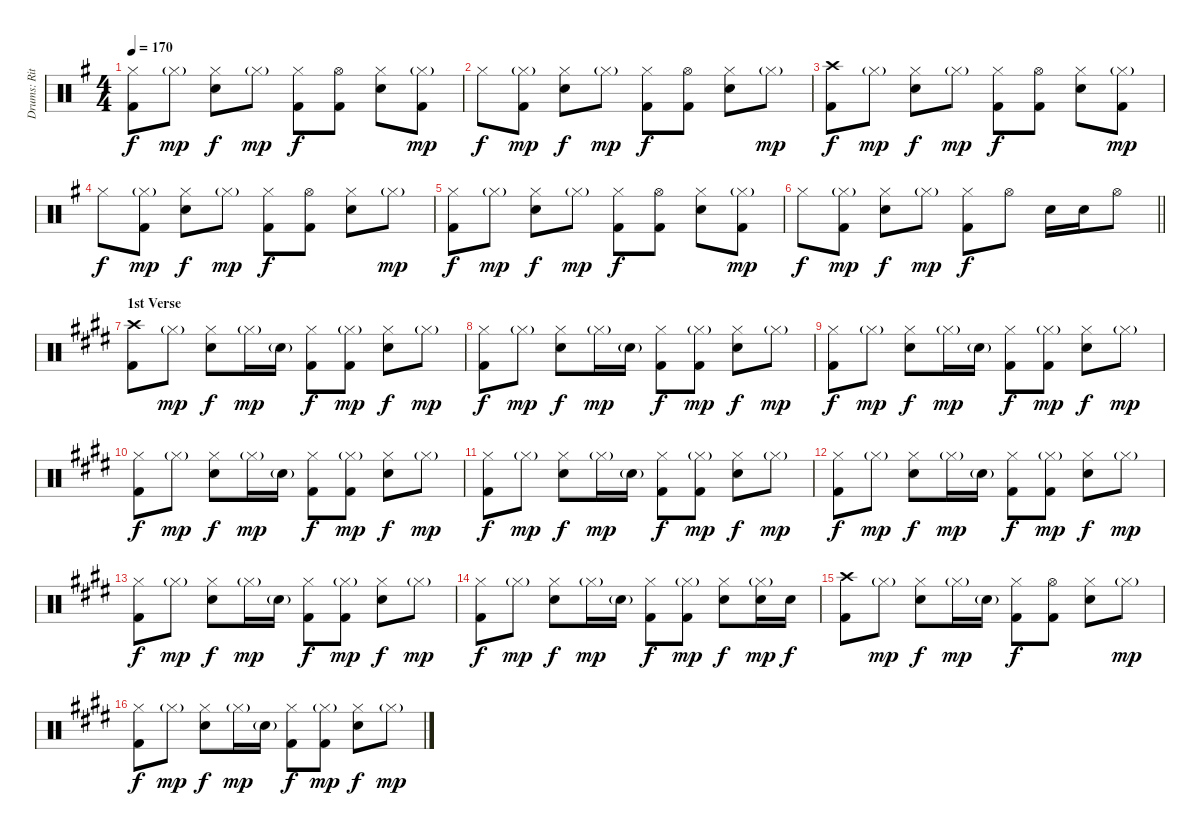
\track ("Drums: Ritsu Tainaka" "Drums: Rit") {instrument percussion}
\staff {score}
\articulation defaults
\ts (4 4)
\tempo 170
\clef neutral
\ks eminor
("Hi-Hat (closed)" "Kick (hit) 2").8{dy f} "Hi-Hat (closed)"{g}.8{dy mp} ("Hi-Hat (closed)" "Electric Snare (hit)").8{dy f} "Hi-Hat (closed)"{g}.8{dy mp} ("Hi-Hat (closed)" "Kick (hit) 2").8{dy f} ("Hi-Hat (open)" "Kick (hit) 2").8 ("Hi-Hat (closed)" "Electric Snare (hit)").8 ("Hi-Hat (closed)"{g} "Kick (hit) 2").8{dy mp} |
"Hi-Hat (closed)".8{dy f} ("Hi-Hat (closed)"{g} "Kick (hit) 2").8{dy mp} ("Hi-Hat (closed)" "Electric Snare (hit)").8{dy f} "Hi-Hat (closed)"{g}.8{dy mp} ("Hi-Hat (closed)" "Kick (hit) 2").8{dy f} ("Hi-Hat (open)" "Kick (hit) 2").8 ("Hi-Hat (closed)" "Electric Snare (hit)").8 "Hi-Hat (closed)"{g}.8{dy mp} |
("Crash high (hit)" "Kick (hit) 2").8{dy f} "Hi-Hat (closed)"{g}.8{dy mp} ("Hi-Hat (closed)" "Electric Snare (hit)").8{dy f} "Hi-Hat (closed)"{g}.8{dy mp} ("Hi-Hat (closed)" "Kick (hit) 2").8{dy f} ("Hi-Hat (open)" "Kick (hit) 2").8 ("Hi-Hat (closed)" "Electric Snare (hit)").8 ("Hi-Hat (closed)"{g} "Kick (hit) 2").8{dy mp} |
"Hi-Hat (closed)".8{dy f} ("Hi-Hat (closed)"{g} "Kick (hit) 2").8{dy mp} ("Hi-Hat (closed)" "Electric Snare (hit)").8{dy f} "Hi-Hat (closed)"{g}.8{dy mp} ("Hi-Hat (closed)" "Kick (hit) 2").8{dy f} ("Hi-Hat (open)" "Kick (hit) 2").8 ("Hi-Hat (closed)" "Electric Snare (hit)").8 "Hi-Hat (closed)"{g}.8{dy mp} |
("Hi-Hat (closed)" "Kick (hit) 2").8{dy f} "Hi-Hat (closed)"{g}.8{dy mp} ("Hi-Hat (closed)" "Electric Snare (hit)").8{dy f} "Hi-Hat (closed)"{g}.8{dy mp} ("Hi-Hat (closed)" "Kick (hit) 2").8{dy f} ("Hi-Hat (open)" "Kick (hit) 2").8 ("Hi-Hat (closed)" "Electric Snare (hit)").8 ("Hi-Hat (closed)"{g} "Kick (hit) 2").8{dy mp} |
\barLineRight lightlight "Hi-Hat (closed)".8{dy f}
("Hi-Hat (closed)"{g} "Kick (hit) 2").8{dy mp} ("Hi-Hat (closed)" "Electric Snare (hit)").8{dy f} "Hi-Hat (closed)"{g}.8{dy mp} ("Hi-Hat (closed)" "Kick (hit) 2").8{dy f} "Hi-Hat (open)".8 "Electric Snare (hit)".16 "Electric Snare (hit)".16 "Hi-Hat (open)".8 |
\section ("" "1st Verse")
\ks e
("Crash high (hit)" "Kick (hit) 2").8 "Hi-Hat (closed)"{g}.8{dy mp} ("Hi-Hat (closed)" "Electric Snare (hit)").8{dy f} "Hi-Hat (closed)"{g}.16{dy mp} "Electric Snare (hit)"{g}.16 ("Hi-Hat (closed)" "Kick (hit) 2").8{dy f} ("Hi-Hat (closed)"{g} "Kick (hit) 2").8{dy mp} ("Hi-Hat (closed)" "Electric Snare (hit)").8{dy f} "Hi-Hat (closed)"{g}.8{dy mp} |
("Hi-Hat (closed)" "Kick (hit) 2").8{dy f} "Hi-Hat (closed)"{g}.8{dy mp} ("Hi-Hat (closed)" "Electric Snare (hit)").8{dy f} "Hi-Hat (closed)"{g}.16{dy mp} "Electric Snare (hit)"{g}.16 ("Hi-Hat (closed)" "Kick (hit) 2").8{dy f} ("Hi-Hat (closed)"{g} "Kick (hit) 2").8{dy mp} ("Hi-Hat (closed)" "Electric Snare (hit)").8{dy f} "Hi-Hat (closed)"{g}.8{dy mp} |
("Hi-Hat (closed)" "Kick (hit) 2").8{dy f} "Hi-Hat (closed)"{g}.8{dy mp} ("Hi-Hat (closed)" "Electric Snare (hit)").8{dy f} "Hi-Hat (closed)"{g}.16{dy mp} "Electric Snare (hit)"{g}.16 ("Hi-Hat (closed)" "Kick (hit) 2").8{dy f} ("Hi-Hat (closed)"{g} "Kick (hit) 2").8{dy mp} ("Hi-Hat (closed)" "Electric Snare (hit)").8{dy f} "Hi-Hat (closed)"{g}.8{dy mp} |
("Hi-Hat (closed)" "Kick (hit) 2").8{dy f} "Hi-Hat (closed)"{g}.8{dy mp} ("Hi-Hat (closed)" "Electric Snare (hit)").8{dy f} "Hi-Hat (closed)"{g}.16{dy mp} "Electric Snare (hit)"{g}.16 ("Hi-Hat (closed)" "Kick (hit) 2").8{dy f} ("Hi-Hat (closed)"{g} "Kick (hit) 2").8{dy mp} ("Hi-Hat (closed)" "Electric Snare (hit)").8{dy f} "Hi-Hat (closed)"{g}.8{dy mp} |
("Hi-Hat (closed)" "Kick (hit) 2").8{dy f} "Hi-Hat (closed)"{g}.8{dy mp} ("Hi-Hat (closed)" "Electric Snare (hit)").8{dy f} "Hi-Hat (closed)"{g}.16{dy mp} "Electric Snare (hit)"{g}.16 ("Hi-Hat (closed)" "Kick (hit) 2").8{dy f} ("Hi-Hat (closed)"{g} "Kick (hit) 2").8{dy mp} ("Hi-Hat (closed)" "Electric Snare (hit)").8{dy f} "Hi-Hat (closed)"{g}.8{dy mp} |
("Hi-Hat (closed)" "Kick (hit) 2").8{dy f} "Hi-Hat (closed)"{g}.8{dy mp} ("Hi-Hat (closed)" "Electric Snare (hit)").8{dy f} "Hi-Hat (closed)"{g}.16{dy mp} "Electric Snare (hit)"{g}.16 ("Hi-Hat (closed)" "Kick (hit) 2").8{dy f} ("Hi-Hat (closed)"{g} "Kick (hit) 2").8{dy mp} ("Hi-Hat (closed)" "Electric Snare (hit)").8{dy f} "Hi-Hat (closed)"{g}.8{dy mp} |
("Hi-Hat (closed)" "Kick (hit) 2").8{dy f} "Hi-Hat (closed)"{g}.8{dy mp} ("Hi-Hat (closed)" "Electric Snare (hit)").8{dy f} "Hi-Hat (closed)"{g}.16{dy mp} "Electric Snare (hit)"{g}.16 ("Hi-Hat (closed)" "Kick (hit) 2").8{dy f} ("Hi-Hat (closed)"{g} "Kick (hit) 2").8{dy mp} ("Hi-Hat (closed)" "Electric Snare (hit)").8{dy f} "Hi-Hat (closed)"{g}.8{dy mp} |
("Hi-Hat (closed)" "Kick (hit) 2").8{dy f} "Hi-Hat (closed)"{g}.8{dy mp} ("Hi-Hat (closed)" "Electric Snare (hit)").8{dy f} "Hi-Hat (closed)"{g}.16{dy mp} "Electric Snare (hit)"{g}.16 ("Hi-Hat (closed)" "Kick (hit) 2").8{dy f} ("Hi-Hat (closed)"{g} "Kick (hit) 2").8{dy mp} ("Hi-Hat (closed)" "Electric Snare (hit)").8{dy f} ("Hi-Hat (closed)"{g} "Electric Snare (hit)").16{dy mp} "Electric Snare (hit)".16{dy f} |
("Crash high (hit)" "Kick (hit) 2").8 "Hi-Hat (closed)"{g}.8{dy mp} ("Hi-Hat (closed)" "Electric Snare (hit)").8{dy f} "Hi-Hat (closed)"{g}.16{dy mp} "Electric Snare (hit)"{g}.16 ("Hi-Hat (closed)" "Kick (hit) 2").8{dy f} ("Hi-Hat (open)" "Kick (hit) 2").8 ("Hi-Hat (closed)" "Electric Snare (hit)").8 "Hi-Hat (closed)"{g}.8{dy mp} |
("Hi-Hat (closed)" "Kick (hit) 2").8{dy f} "Hi-Hat (closed)"{g}.8{dy mp} ("Hi-Hat (closed)" "Electric Snare (hit)").8{dy f} "Hi-Hat (closed)"{g}.16{dy mp} "Electric Snare (hit)"{g}.16 ("Hi-Hat (closed)" "Kick (hit) 2").8{dy f} ("Hi-Hat (closed)"{g} "Kick (hit) 2").8{dy mp} ("Hi-Hat (closed)" "Electric Snare (hit)").8{dy f} "Hi-Hat (closed)"{g}.8{dy mp}
